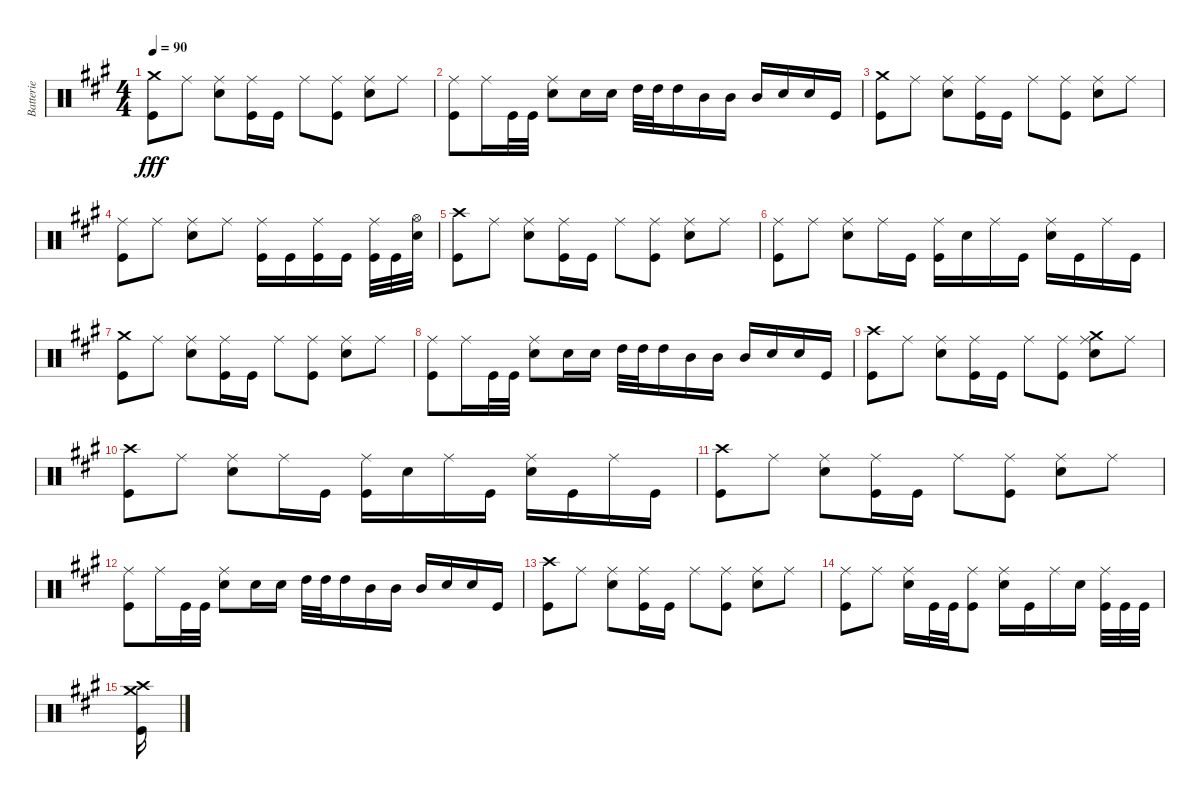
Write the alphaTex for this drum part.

\track ("Batterie" "Batterie") {instrument percussion}
\staff {score}
\articulation defaults
\ts (4 4)
\tempo 90
\clef neutral
\ks a
("Crash medium (hit)" "Kick (hit)").8{dy fff} "Ride (middle)".8 ("Ride (middle)" "Electric Snare (hit)").8 ("Ride (middle)" "Kick (hit)").16 "Kick (hit)".16 "Ride (middle)".8 ("Ride (middle)" "Kick (hit)").8 ("Ride (middle)" "Electric Snare (hit)").8 "Ride (middle)".8 |
("Ride (middle)" "Kick (hit)").8 "Ride (middle)".16 "Kick (hit)".32 "Kick (hit)".32 ("Ride (middle)" "Electric Snare (hit)").8 "Electric Snare (hit)".16 "Electric Snare (hit)".16 "High Tom (hit)".32 "High Tom (hit)".32 "High Tom (hit)".16 "Mid Tom (hit)".16 "Mid Tom (hit)".16 "Mid Tom (hit)".16 "Electric Snare (hit)".16 "Electric Snare (hit)".16 "Kick (hit)".16 |
("Crash medium (hit)" "Kick (hit)").8 "Ride (middle)".8 ("Ride (middle)" "Electric Snare (hit)").8 ("Ride (middle)" "Kick (hit)").16 "Kick (hit)".16 "Ride (middle)".8 ("Ride (middle)" "Kick (hit)").8 ("Ride (middle)" "Electric Snare (hit)").8 "Ride (middle)".8 |
("Ride (middle)" "Kick (hit)").8 "Ride (middle)".8 ("Ride (middle)" "Electric Snare (hit)").8 "Ride (middle)".8 ("Ride (middle)" "Kick (hit)").16 "Kick (hit)".16 ("Ride (middle)" "Kick (hit)").16 "Kick (hit)".16 ("Ride (middle)" "Kick (hit)").32 "Kick (hit)".32 ("Hi-Hat (open)" "Electric Snare (hit)").32 |
("Crash high (hit)" "Kick (hit)").8 "Ride (middle)".8 ("Ride (middle)" "Electric Snare (hit)").8 ("Ride (middle)" "Kick (hit)").16 "Kick (hit)".16 "Ride (middle)".8 ("Ride (middle)" "Kick (hit)").8 ("Ride (middle)" "Electric Snare (hit)").8 "Ride (middle)".8 |
("Ride (middle)" "Kick (hit)").8 "Ride (middle)".8 ("Ride (middle)" "Electric Snare (hit)").8 "Ride (middle)".16 "Kick (hit)".16 ("Ride (middle)" "Kick (hit)").16 "Electric Snare (hit)".16 "Ride (middle)".16 "Kick (hit)".16 ("Ride (middle)" "Electric Snare (hit)").16 "Kick (hit)".16 "Ride (middle)".16 "Kick (hit)".16 |
("Crash medium (hit)" "Kick (hit)").8 "Ride (middle)".8 ("Ride (middle)" "Electric Snare (hit)").8 ("Ride (middle)" "Kick (hit)").16 "Kick (hit)".16 "Ride (middle)".8 ("Ride (middle)" "Kick (hit)").8 ("Ride (middle)" "Electric Snare (hit)").8 "Ride (middle)".8 |
("Ride (middle)" "Kick (hit)").8 "Ride (middle)".16 "Kick (hit)".32 "Kick (hit)".32 ("Ride (middle)" "Electric Snare (hit)").8 "Electric Snare (hit)".16 "Electric Snare (hit)".16 "High Tom (hit)".32 "High Tom (hit)".32 "High Tom (hit)".16 "Mid Tom (hit)".16 "Mid Tom (hit)".16 "Mid Tom (hit)".16 "Electric Snare (hit)".16 "Electric Snare (hit)".16 "Kick (hit)".16 |
("Crash high (hit)" "Kick (hit)").8 "Ride (middle)".8 ("Ride (middle)" "Electric Snare (hit)").8 ("Ride (middle)" "Kick (hit)").16 "Kick (hit)".16 "Ride (middle)".8 ("Ride (middle)" "Kick (hit)").8 ("Ride (middle)" "Electric Snare (hit)" "Crash medium (hit)").8 "Ride (middle)".8 |
("Crash high (hit)" "Kick (hit)").8 "Ride (middle)".8 ("Ride (middle)" "Electric Snare (hit)").8 "Ride (middle)".16 "Kick (hit)".16 ("Ride (middle)" "Kick (hit)").16 "Electric Snare (hit)".16 "Ride (middle)".16 "Kick (hit)".16 ("Ride (middle)" "Electric Snare (hit)").16 "Kick (hit)".16 "Ride (middle)".16 "Kick (hit)".16 |
("Kick (hit)" "Crash high (hit)").8 "Ride (middle)".8 ("Ride (middle)" "Electric Snare (hit)").8 ("Ride (middle)" "Kick (hit)").16 "Kick (hit)".16 "Ride (middle)".8 ("Ride (middle)" "Kick (hit)").8 ("Ride (middle)" "Electric Snare (hit)").8 "Ride (middle)".8 |
("Ride (middle)" "Kick (hit)").8 "Ride (middle)".16 "Kick (hit)".32 "Kick (hit)".32 ("Ride (middle)" "Electric Snare (hit)").8 "Electric Snare (hit)".16 "Electric Snare (hit)".16 "High Tom (hit)".32 "High Tom (hit)".32 "High Tom (hit)".16 "Mid Tom (hit)".16 "Mid Tom (hit)".16 "Mid Tom (hit)".16 "Electric Snare (hit)".16 "Electric Snare (hit)".16 "Kick (hit)".16 |
("Kick (hit)" "Crash high (hit)").8 "Ride (middle)".8 ("Ride (middle)" "Electric Snare (hit)").8 ("Ride (middle)" "Kick (hit)").16 "Kick (hit)".16 "Ride (middle)".8 ("Ride (middle)" "Kick (hit)").8 ("Ride (middle)" "Electric Snare (hit)").8 "Ride (middle)".8 |
("Ride (middle)" "Kick (hit)").8 "Ride (middle)".8 ("Ride (middle)" "Electric Snare (hit)").16 "Kick (hit)".32 "Kick (hit)".32 ("Ride (middle)" "Kick (hit)").8 ("Ride (middle)" "Electric Snare (hit)").16 "Kick (hit)".16 "Ride (middle)".16 "Electric Snare (hit)".16 ("Ride (middle)" "Kick (hit)").32 "Kick (hit)".32 "Kick (hit)".32 |
("Crash high (hit)" "Kick (hit)" "Crash medium (hit)").16
